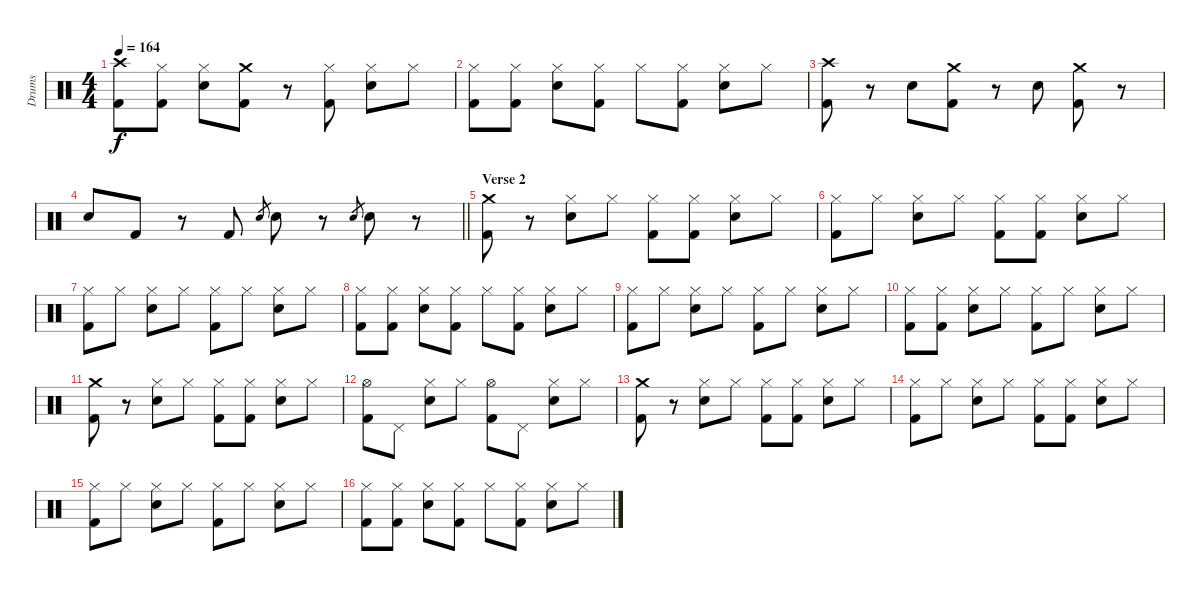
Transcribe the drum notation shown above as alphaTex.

\track ("Drums" "Drums") {instrument percussion}
\staff {score}
\articulation defaults
\ts (4 4)
\tempo 164
\clef neutral
\ks c
("Crash high (hit)" "Kick (hit) 2").8{dy f} ("Hi-Hat (closed)" "Kick (hit) 2").8 ("Hi-Hat (closed)" "Snare (hit) 2").8 ("Crash medium (hit)" "Kick (hit) 2").8 r.8 ("Hi-Hat (closed)" "Kick (hit) 2").8 ("Hi-Hat (closed)" "Snare (hit) 2").8 "Hi-Hat (closed)".8 |
("Hi-Hat (closed)" "Kick (hit) 2").8 ("Hi-Hat (closed)" "Kick (hit) 2").8 ("Hi-Hat (closed)" "Snare (hit) 2").8 ("Hi-Hat (closed)" "Kick (hit) 2").8 "Hi-Hat (closed)".8 ("Hi-Hat (closed)" "Kick (hit) 2").8 ("Hi-Hat (closed)" "Snare (hit) 2").8 "Hi-Hat (closed)".8 |
("Crash high (hit)" "Kick (hit) 2").8 r.8 "Snare (hit) 2".8 ("Crash medium (hit)" "Kick (hit) 2").8 r.8 "Snare (hit) 2".8 ("Crash medium (hit)" "Kick (hit) 2").8 r.8 |
\barLineRight lightlight "Snare (hit) 2".8 "Kick (hit) 2".8
r.8 "Kick (hit) 2".8 "Snare (hit) 2".8{gr} "Snare (hit) 2".8 r.8 "Snare (hit) 2".8{gr} "Snare (hit) 2".8 r.8 |
\section ("" "Verse 2")
("Crash medium (hit)" "Kick (hit) 2").8 r.8 ("Hi-Hat (closed)" "Snare (hit) 2").8 "Hi-Hat (closed)".8 ("Hi-Hat (closed)" "Kick (hit) 2").8 ("Hi-Hat (closed)" "Kick (hit) 2").8 ("Hi-Hat (closed)" "Snare (hit) 2").8 "Hi-Hat (closed)".8 |
("Hi-Hat (closed)" "Kick (hit) 2").8 "Hi-Hat (closed)".8 ("Hi-Hat (closed)" "Snare (hit) 2").8 "Hi-Hat (closed)".8 ("Hi-Hat (closed)" "Kick (hit) 2").8 ("Hi-Hat (closed)" "Kick (hit) 2").8 ("Hi-Hat (closed)" "Snare (hit) 2").8 "Hi-Hat (closed)".8 |
("Hi-Hat (closed)" "Kick (hit) 2").8 "Hi-Hat (closed)".8 ("Hi-Hat (closed)" "Snare (hit) 2").8 "Hi-Hat (closed)".8 ("Hi-Hat (closed)" "Kick (hit) 2").8 "Hi-Hat (closed)".8 ("Hi-Hat (closed)" "Snare (hit) 2").8 "Hi-Hat (closed)".8 |
("Hi-Hat (closed)" "Kick (hit) 2").8 ("Hi-Hat (closed)" "Kick (hit) 2").8 ("Hi-Hat (closed)" "Snare (hit) 2").8 ("Hi-Hat (closed)" "Kick (hit) 2").8 "Hi-Hat (closed)".8 ("Hi-Hat (closed)" "Kick (hit) 2").8 ("Hi-Hat (closed)" "Snare (hit) 2").8 "Hi-Hat (closed)".8 |
("Hi-Hat (closed)" "Kick (hit) 2").8 "Hi-Hat (closed)".8 ("Hi-Hat (closed)" "Snare (hit) 2").8 "Hi-Hat (closed)".8 ("Hi-Hat (closed)" "Kick (hit) 2").8 "Hi-Hat (closed)".8 ("Hi-Hat (closed)" "Snare (hit) 2").8 "Hi-Hat (closed)".8 |
("Hi-Hat (closed)" "Kick (hit) 2").8 ("Hi-Hat (closed)" "Kick (hit) 2").8 ("Hi-Hat (closed)" "Snare (hit) 2").8 "Hi-Hat (closed)".8 ("Hi-Hat (closed)" "Kick (hit) 2").8 "Hi-Hat (closed)".8 ("Hi-Hat (closed)" "Snare (hit) 2").8 "Hi-Hat (closed)".8 |
("Crash medium (hit)" "Kick (hit) 2").8 r.8 ("Hi-Hat (closed)" "Snare (hit) 2").8 "Hi-Hat (closed)".8 ("Hi-Hat (closed)" "Kick (hit) 2").8 ("Hi-Hat (closed)" "Kick (hit) 2").8 ("Hi-Hat (closed)" "Snare (hit) 2").8 "Hi-Hat (closed)".8 |
("Hi-Hat (open)" "Kick (hit) 2").8 "Pedal Hi-Hat (hit)".8 ("Hi-Hat (closed)" "Snare (hit) 2").8 "Hi-Hat (closed)".8 ("Hi-Hat (open)" "Kick (hit) 2").8 "Pedal Hi-Hat (hit)".8 ("Hi-Hat (closed)" "Snare (hit) 2").8 "Hi-Hat (closed)".8 |
("Crash medium (hit)" "Kick (hit) 2").8 r.8 ("Hi-Hat (closed)" "Snare (hit) 2").8 "Hi-Hat (closed)".8 ("Hi-Hat (closed)" "Kick (hit) 2").8 ("Hi-Hat (closed)" "Kick (hit) 2").8 ("Hi-Hat (closed)" "Snare (hit) 2").8 "Hi-Hat (closed)".8 |
("Hi-Hat (closed)" "Kick (hit) 2").8 "Hi-Hat (closed)".8 ("Hi-Hat (closed)" "Snare (hit) 2").8 "Hi-Hat (closed)".8 ("Hi-Hat (closed)" "Kick (hit) 2").8 ("Hi-Hat (closed)" "Kick (hit) 2").8 ("Hi-Hat (closed)" "Snare (hit) 2").8 "Hi-Hat (closed)".8 |
("Hi-Hat (closed)" "Kick (hit) 2").8 "Hi-Hat (closed)".8 ("Hi-Hat (closed)" "Snare (hit) 2").8 "Hi-Hat (closed)".8 ("Hi-Hat (closed)" "Kick (hit) 2").8 "Hi-Hat (closed)".8 ("Hi-Hat (closed)" "Snare (hit) 2").8 "Hi-Hat (closed)".8 |
("Hi-Hat (closed)" "Kick (hit) 2").8 ("Hi-Hat (closed)" "Kick (hit) 2").8 ("Hi-Hat (closed)" "Snare (hit) 2").8 ("Hi-Hat (closed)" "Kick (hit) 2").8 "Hi-Hat (closed)".8 ("Hi-Hat (closed)" "Kick (hit) 2").8 ("Hi-Hat (closed)" "Snare (hit) 2").8 "Hi-Hat (closed)".8
